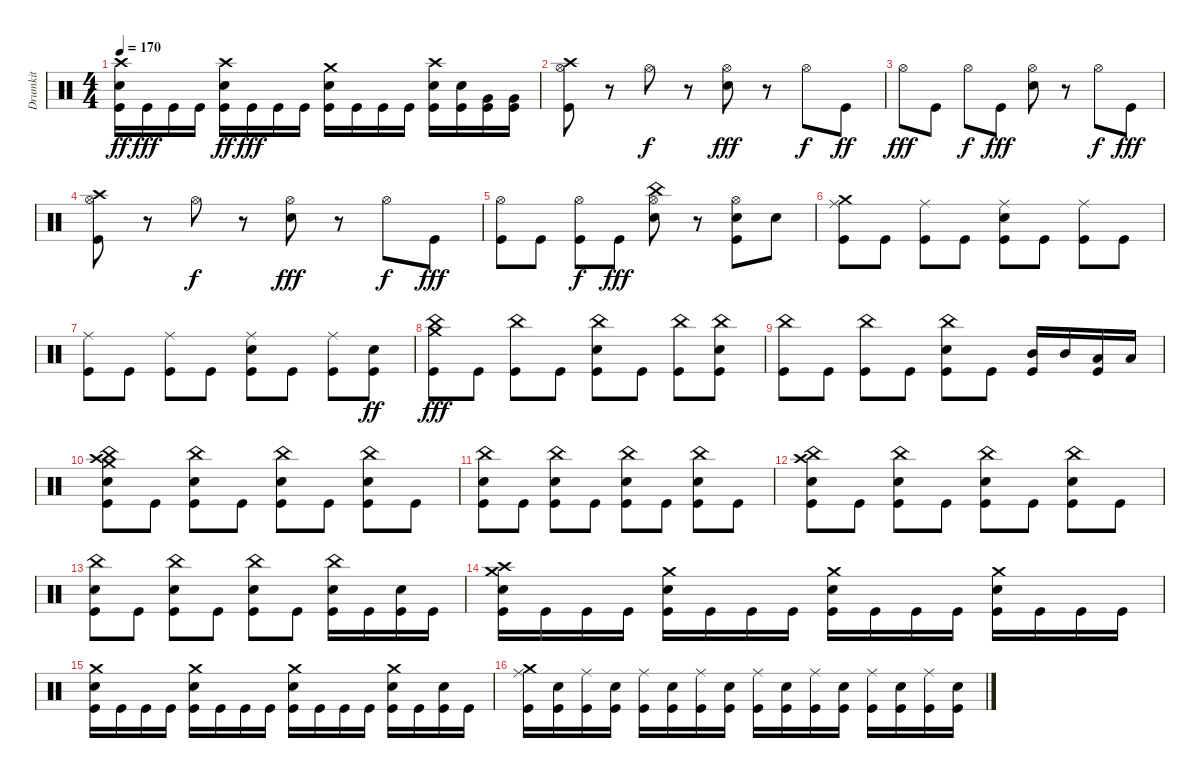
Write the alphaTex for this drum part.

\track ("Drumkit" "Drumkit") {instrument percussion}
\staff {score}
\articulation defaults
\ts (4 4)
\tempo 170
\clef neutral
\ks c
("Crash high (hit)" "Snare (hit) 2" "Kick (hit)").16{dy ff} "Kick (hit)".16{dy fff} "Kick (hit)".16 "Kick (hit)".16 ("Crash high (hit)" "Snare (hit) 2" "Kick (hit)").16{dy ff} "Kick (hit)".16{dy fff} "Kick (hit)".16 "Kick (hit)".16 ("Crash medium (hit)" "Snare (hit) 2" "Kick (hit)").16 "Kick (hit)".16 "Kick (hit)".16 "Kick (hit)".16 ("Crash high (hit)" "Snare (hit) 2" "Kick (hit)").16 ("Snare (hit) 2" "Kick (hit)").16 ("Very Low Tom (hit)" "Kick (hit)").16 ("Very Low Tom (hit)" "Kick (hit)").16 |
("Hi-Hat (open)" "Crash high (hit)" "Kick (hit)").8 r.8 "Hi-Hat (open)".8{dy f} r.8 ("Hi-Hat (open)" "Snare (hit) 2").8{dy fff} r.8 "Hi-Hat (open)".8{dy f} "Kick (hit)".8{dy ff} |
"Hi-Hat (open)".8{dy fff} "Kick (hit)".8 "Hi-Hat (open)".8{dy f} "Kick (hit)".8{dy fff} ("Hi-Hat (open)" "Snare (hit) 2").8 r.8 "Hi-Hat (open)".8{dy f} "Kick (hit)".8{dy fff} |
("Hi-Hat (open)" "Crash high (hit)" "Kick (hit)").8 r.8 "Hi-Hat (open)".8{dy f} r.8 ("Hi-Hat (open)" "Snare (hit) 2").8{dy fff} r.8 "Hi-Hat (open)".8{dy f} "Kick (hit)".8{dy fff} |
("Hi-Hat (open)" "Kick (hit)").8 "Kick (hit)".8 ("Hi-Hat (open)" "Kick (hit)").8{dy f} "Kick (hit)".8{dy fff} ("China (hit)" "Hi-Hat (open)" "Snare (hit) 2").8 r.8 ("Hi-Hat (open)" "Snare (hit) 2" "Kick (hit)").8 "Snare (hit) 2".8 |
("Ride (middle)" "Crash medium (hit)" "Kick (hit)").8 "Kick (hit)".8 ("Ride (middle)" "Kick (hit)").8 "Kick (hit)".8 ("Ride (middle)" "Snare (hit) 2" "Kick (hit)").8 "Kick (hit)".8 ("Ride (middle)" "Kick (hit)").8 "Kick (hit)".8 |
("Ride (middle)" "Kick (hit)").8 "Kick (hit)".8 ("Ride (middle)" "Kick (hit)").8 "Kick (hit)".8 ("Ride (middle)" "Snare (hit) 2" "Kick (hit)").8 "Kick (hit)".8 ("Ride (middle)" "Kick (hit)").8 ("Snare (hit) 2" "Kick (hit)").8{dy ff} |
("China (hit)" "Crash medium (hit)" "Kick (hit)").8{dy fff} "Kick (hit)".8 ("China (hit)" "Kick (hit)").8 "Kick (hit)".8 ("China (hit)" "Snare (hit) 2" "Kick (hit)").8 "Kick (hit)".8 ("China (hit)" "Kick (hit)").8 ("China (hit)" "Snare (hit) 2" "Kick (hit)").8 |
("China (hit)" "Kick (hit)").8 "Kick (hit)".8 ("China (hit)" "Kick (hit)").8 "Kick (hit)".8 ("China (hit)" "Snare (hit) 2" "Kick (hit)").8 "Kick (hit)".8 ("Mid Tom (hit)" "Kick (hit)").16 "Mid Tom (hit)".16 ("Low Tom (hit)" "Kick (hit)").16 "Low Tom (hit)".16 |
("China (hit)" "Crash high (hit)" "Crash medium (hit)" "Snare (hit) 2" "Kick (hit)").8 "Kick (hit)".8 ("China (hit)" "Snare (hit) 2" "Kick (hit)").8 "Kick (hit)".8 ("China (hit)" "Snare (hit) 2" "Kick (hit)").8 "Kick (hit)".8 ("China (hit)" "Snare (hit) 2" "Kick (hit)").8 "Kick (hit)".8 |
("China (hit)" "Snare (hit) 2" "Kick (hit)").8 "Kick (hit)".8 ("China (hit)" "Snare (hit) 2" "Kick (hit)").8 "Kick (hit)".8 ("China (hit)" "Snare (hit) 2" "Kick (hit)").8 "Kick (hit)".8 ("China (hit)" "Snare (hit) 2" "Kick (hit)").8 "Kick (hit)".8 |
("China (hit)" "Crash high (hit)" "Snare (hit) 2" "Kick (hit)").8 "Kick (hit)".8 ("China (hit)" "Snare (hit) 2" "Kick (hit)").8 "Kick (hit)".8 ("China (hit)" "Snare (hit) 2" "Kick (hit)").8 "Kick (hit)".8 ("China (hit)" "Snare (hit) 2" "Kick (hit)").8 "Kick (hit)".8 |
("China (hit)" "Snare (hit) 2" "Kick (hit)").8 "Kick (hit)".8 ("China (hit)" "Snare (hit) 2" "Kick (hit)").8 "Kick (hit)".8 ("China (hit)" "Snare (hit) 2" "Kick (hit)").8 "Kick (hit)".8 ("China (hit)" "Snare (hit) 2" "Kick (hit)").16 "Kick (hit)".16 ("Snare (hit) 2" "Kick (hit)").16 "Kick (hit)".16 |
("Crash medium (hit)" "Crash high (hit)" "Snare (hit) 2" "Kick (hit)").16 "Kick (hit)".16 "Kick (hit)".16 "Kick (hit)".16 ("Crash medium (hit)" "Snare (hit) 2" "Kick (hit)").16 "Kick (hit)".16 "Kick (hit)".16 "Kick (hit)".16 ("Crash medium (hit)" "Snare (hit) 2" "Kick (hit)").16 "Kick (hit)".16 "Kick (hit)".16 "Kick (hit)".16 ("Crash medium (hit)" "Snare (hit) 2" "Kick (hit)").16 "Kick (hit)".16 "Kick (hit)".16 "Kick (hit)".16 |
("Crash medium (hit)" "Snare (hit) 2" "Kick (hit)").16 "Kick (hit)".16 "Kick (hit)".16 "Kick (hit)".16 ("Crash medium (hit)" "Snare (hit) 2" "Kick (hit)").16 "Kick (hit)".16 "Kick (hit)".16 "Kick (hit)".16 ("Crash medium (hit)" "Snare (hit) 2" "Kick (hit)").16 "Kick (hit)".16 "Kick (hit)".16 "Kick (hit)".16 ("Crash medium (hit)" "Snare (hit) 2" "Kick (hit)").16 "Kick (hit)".16 ("Snare (hit) 2" "Kick (hit)").16 "Kick (hit)".16 |
("Ride (middle)" "Crash medium (hit)" "Kick (hit)").16 ("Snare (hit) 2" "Kick (hit)").16 ("Ride (middle)" "Kick (hit)").16 ("Snare (hit) 2" "Kick (hit)").16 ("Ride (middle)" "Kick (hit)").16 ("Snare (hit) 2" "Kick (hit)").16 ("Ride (middle)" "Kick (hit)").16 ("Snare (hit) 2" "Kick (hit)").16 ("Ride (middle)" "Kick (hit)").16 ("Snare (hit) 2" "Kick (hit)").16 ("Ride (middle)" "Kick (hit)").16 ("Snare (hit) 2" "Kick (hit)").16 ("Ride (middle)" "Kick (hit)").16 ("Snare (hit) 2" "Kick (hit)").16 ("Ride (middle)" "Kick (hit)").16 ("Snare (hit) 2" "Kick (hit)").16
